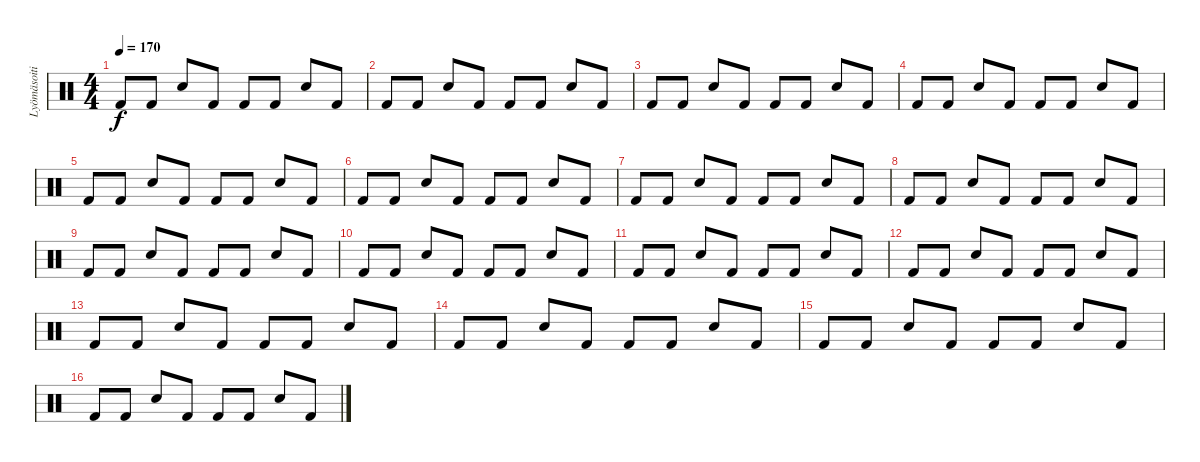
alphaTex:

\track ("Lyömäsoitin" "Lyömäsoiti") {instrument percussion}
\staff {score}
\articulation defaults
\ts (4 4)
\tempo 170
\clef neutral
\ks c "Kick (hit) 2".8{dy f} "Kick (hit) 2".8 "Snare (hit) 2".8 "Kick (hit) 2".8 "Kick (hit) 2".8 "Kick (hit) 2".8 "Snare (hit) 2".8 "Kick (hit) 2".8
|
"Kick (hit) 2".8 "Kick (hit) 2".8 "Snare (hit) 2".8 "Kick (hit) 2".8 "Kick (hit) 2".8 "Kick (hit) 2".8 "Snare (hit) 2".8 "Kick (hit) 2".8 |
"Kick (hit) 2".8 "Kick (hit) 2".8 "Snare (hit) 2".8 "Kick (hit) 2".8 "Kick (hit) 2".8 "Kick (hit) 2".8 "Snare (hit) 2".8 "Kick (hit) 2".8 |
"Kick (hit) 2".8 "Kick (hit) 2".8 "Snare (hit) 2".8 "Kick (hit) 2".8 "Kick (hit) 2".8 "Kick (hit) 2".8 "Snare (hit) 2".8 "Kick (hit) 2".8 |
"Kick (hit) 2".8 "Kick (hit) 2".8 "Snare (hit) 2".8 "Kick (hit) 2".8 "Kick (hit) 2".8 "Kick (hit) 2".8 "Snare (hit) 2".8 "Kick (hit) 2".8 |
"Kick (hit) 2".8 "Kick (hit) 2".8 "Snare (hit) 2".8 "Kick (hit) 2".8 "Kick (hit) 2".8 "Kick (hit) 2".8 "Snare (hit) 2".8 "Kick (hit) 2".8 |
"Kick (hit) 2".8 "Kick (hit) 2".8 "Snare (hit) 2".8 "Kick (hit) 2".8 "Kick (hit) 2".8 "Kick (hit) 2".8 "Snare (hit) 2".8 "Kick (hit) 2".8 |
"Kick (hit) 2".8 "Kick (hit) 2".8 "Snare (hit) 2".8 "Kick (hit) 2".8 "Kick (hit) 2".8 "Kick (hit) 2".8 "Snare (hit) 2".8 "Kick (hit) 2".8 |
"Kick (hit) 2".8 "Kick (hit) 2".8 "Snare (hit) 2".8 "Kick (hit) 2".8 "Kick (hit) 2".8 "Kick (hit) 2".8 "Snare (hit) 2".8 "Kick (hit) 2".8 |
"Kick (hit) 2".8 "Kick (hit) 2".8 "Snare (hit) 2".8 "Kick (hit) 2".8 "Kick (hit) 2".8 "Kick (hit) 2".8 "Snare (hit) 2".8 "Kick (hit) 2".8 |
"Kick (hit) 2".8 "Kick (hit) 2".8 "Snare (hit) 2".8 "Kick (hit) 2".8 "Kick (hit) 2".8 "Kick (hit) 2".8 "Snare (hit) 2".8 "Kick (hit) 2".8 |
"Kick (hit) 2".8 "Kick (hit) 2".8 "Snare (hit) 2".8 "Kick (hit) 2".8 "Kick (hit) 2".8 "Kick (hit) 2".8 "Snare (hit) 2".8 "Kick (hit) 2".8 |
"Kick (hit) 2".8 "Kick (hit) 2".8 "Snare (hit) 2".8 "Kick (hit) 2".8 "Kick (hit) 2".8 "Kick (hit) 2".8 "Snare (hit) 2".8 "Kick (hit) 2".8 |
"Kick (hit) 2".8 "Kick (hit) 2".8 "Snare (hit) 2".8 "Kick (hit) 2".8 "Kick (hit) 2".8 "Kick (hit) 2".8 "Snare (hit) 2".8 "Kick (hit) 2".8 |
"Kick (hit) 2".8 "Kick (hit) 2".8 "Snare (hit) 2".8 "Kick (hit) 2".8 "Kick (hit) 2".8 "Kick (hit) 2".8 "Snare (hit) 2".8 "Kick (hit) 2".8 |
"Kick (hit) 2".8 "Kick (hit) 2".8 "Snare (hit) 2".8 "Kick (hit) 2".8 "Kick (hit) 2".8 "Kick (hit) 2".8 "Snare (hit) 2".8 "Kick (hit) 2".8
